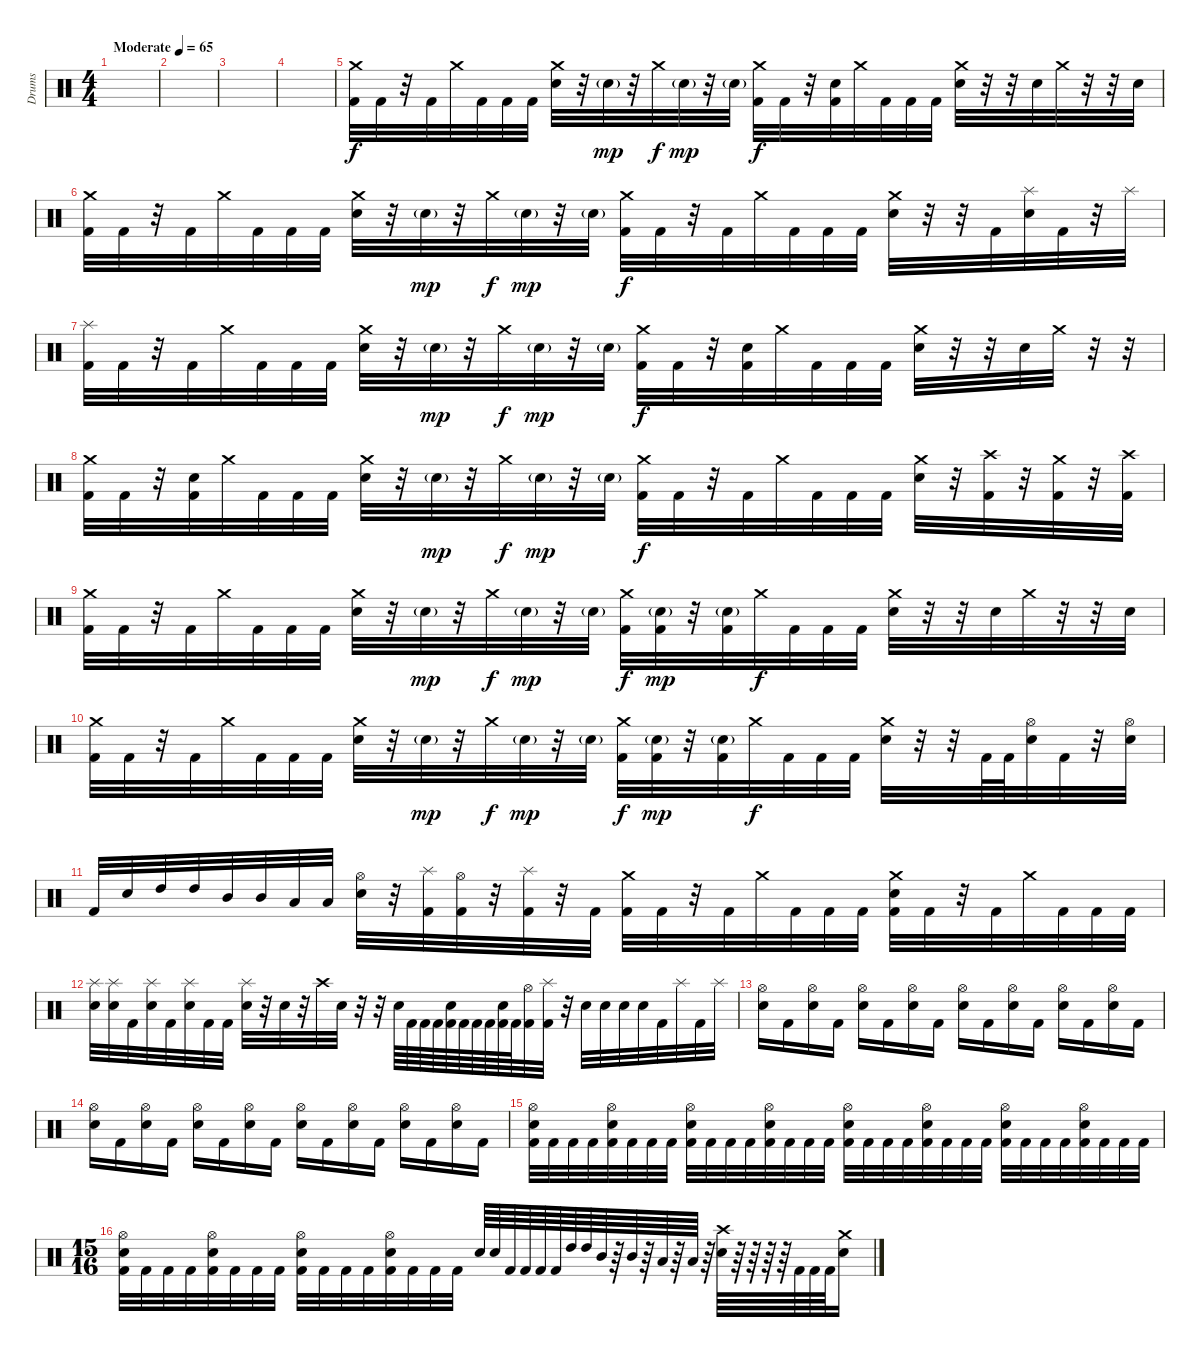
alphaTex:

\track ("Drums" "Drums") {instrument percussion}
\staff {score}
\articulation defaults
\ts (4 4)
\tempo (65 "Moderate")
\clef neutral
\ks c
|
|
|
|
("Crash medium (hit)" "Kick (hit) 2").32 "Kick (hit) 2".32 r.32 "Kick (hit) 2".32 "Crash medium (hit)".32 "Kick (hit) 2".32 "Kick (hit) 2".32 "Kick (hit) 2".32 ("Crash medium (hit)" "Electric Snare (hit)").32 r.32 "Electric Snare (hit)"{g}.32{dy mp} r.32 "Crash medium (hit)".32{dy f} "Electric Snare (hit)"{g}.32{dy mp} r.32 "Electric Snare (hit)"{g}.32 ("Crash medium (hit)" "Kick (hit) 2").32{dy f} "Kick (hit) 2".32 r.32 ("Electric Snare (hit)" "Kick (hit) 2").32 "Crash medium (hit)".32 "Kick (hit) 2".32 "Kick (hit) 2".32 "Kick (hit) 2".32 ("Crash medium (hit)" "Electric Snare (hit)").32 r.32 r.32 "Electric Snare (hit)".32 "Crash medium (hit)".32 r.32 r.32 "Electric Snare (hit)".32 |
("Crash medium (hit)" "Kick (hit) 2").32 "Kick (hit) 2".32 r.32 "Kick (hit) 2".32 "Crash medium (hit)".32 "Kick (hit) 2".32 "Kick (hit) 2".32 "Kick (hit) 2".32 ("Crash medium (hit)" "Electric Snare (hit)").32 r.32 "Electric Snare (hit)"{g}.32{dy mp} r.32 "Crash medium (hit)".32{dy f} "Electric Snare (hit)"{g}.32{dy mp} r.32 "Electric Snare (hit)"{g}.32 ("Crash medium (hit)" "Kick (hit) 2").32{dy f} "Kick (hit) 2".32 r.32 "Kick (hit) 2".32 "Crash medium (hit)".32 "Kick (hit) 2".32 "Kick (hit) 2".32 "Kick (hit) 2".32 ("Crash medium (hit)" "Electric Snare (hit)").32 r.32 r.32 "Kick (hit) 2".32 ("Splash (hit)" "Electric Snare (hit)").32 "Kick (hit) 2".32 r.32 "Splash (hit)".32 |
("Splash (hit)" "Kick (hit) 2").32 "Kick (hit) 2".32 r.32 "Kick (hit) 2".32 "Crash medium (hit)".32 "Kick (hit) 2".32 "Kick (hit) 2".32 "Kick (hit) 2".32 ("Crash medium (hit)" "Electric Snare (hit)").32 r.32 "Electric Snare (hit)"{g}.32{dy mp} r.32 "Crash medium (hit)".32{dy f} "Electric Snare (hit)"{g}.32{dy mp} r.32 "Electric Snare (hit)"{g}.32 ("Crash medium (hit)" "Kick (hit) 2").32{dy f} "Kick (hit) 2".32 r.32 ("Electric Snare (hit)" "Kick (hit) 2").32 "Crash medium (hit)".32 "Kick (hit) 2".32 "Kick (hit) 2".32 "Kick (hit) 2".32 ("Crash medium (hit)" "Electric Snare (hit)").32 r.32 r.32 "Electric Snare (hit)".32 "Crash medium (hit)".32 r.32 r.32 |
("Crash medium (hit)" "Kick (hit) 2").32 "Kick (hit) 2".32 r.32 ("Electric Snare (hit)" "Kick (hit) 2").32 "Crash medium (hit)".32 "Kick (hit) 2".32 "Kick (hit) 2".32 "Kick (hit) 2".32 ("Crash medium (hit)" "Electric Snare (hit)").32 r.32 "Electric Snare (hit)"{g}.32{dy mp} r.32 "Crash medium (hit)".32{dy f} "Electric Snare (hit)"{g}.32{dy mp} r.32 "Electric Snare (hit)"{g}.32 ("Crash medium (hit)" "Kick (hit) 2").32{dy f} "Kick (hit) 2".32 r.32 "Kick (hit) 2".32 "Crash medium (hit)".32 "Kick (hit) 2".32 "Kick (hit) 2".32 "Kick (hit) 2".32 ("Crash medium (hit)" "Electric Snare (hit)").32 r.32 ("Crash high (hit)" "Kick (hit) 2").32 r.32 ("Crash medium (hit)" "Kick (hit) 2").32 r.32 ("Crash high (hit)" "Kick (hit) 2").32 |
("Crash medium (hit)" "Kick (hit) 2").32 "Kick (hit) 2".32 r.32 "Kick (hit) 2".32 "Crash medium (hit)".32 "Kick (hit) 2".32 "Kick (hit) 2".32 "Kick (hit) 2".32 ("Crash medium (hit)" "Electric Snare (hit)").32 r.32 "Electric Snare (hit)"{g}.32{dy mp} r.32 "Crash medium (hit)".32{dy f} "Electric Snare (hit)"{g}.32{dy mp} r.32 "Electric Snare (hit)"{g}.32 ("Crash medium (hit)" "Kick (hit) 2").32{dy f} ("Electric Snare (hit)"{g} "Kick (hit) 2").32{dy mp} r.32 ("Electric Snare (hit)"{g} "Kick (hit) 2").32 "Crash medium (hit)".32{dy f} "Kick (hit) 2".32 "Kick (hit) 2".32 "Kick (hit) 2".32 ("Crash medium (hit)" "Electric Snare (hit)").32 r.32 r.32 "Electric Snare (hit)".32 "Crash medium (hit)".32 r.32 r.32 "Electric Snare (hit)".32 |
("Crash medium (hit)" "Kick (hit) 2").32 "Kick (hit) 2".32 r.32 "Kick (hit) 2".32 "Crash medium (hit)".32 "Kick (hit) 2".32 "Kick (hit) 2".32 "Kick (hit) 2".32 ("Crash medium (hit)" "Electric Snare (hit)").32 r.32 "Electric Snare (hit)"{g}.32{dy mp} r.32 "Crash medium (hit)".32{dy f} "Electric Snare (hit)"{g}.32{dy mp} r.32 "Electric Snare (hit)"{g}.32 ("Crash medium (hit)" "Kick (hit) 2").32{dy f} ("Electric Snare (hit)"{g} "Kick (hit) 2").32{dy mp} r.32 ("Electric Snare (hit)"{g} "Kick (hit) 2").32 "Crash medium (hit)".32{dy f} "Kick (hit) 2".32 "Kick (hit) 2".32 "Kick (hit) 2".32 ("Crash medium (hit)" "Electric Snare (hit)").32 r.32 r.32 "Kick (hit) 2".64 "Kick (hit) 2".64 ("Hi-Hat (open)" "Electric Snare (hit)").32 "Kick (hit) 2".32 r.32 ("Hi-Hat (open)" "Electric Snare (hit)").32 |
"Kick (hit) 2".32 "Electric Snare (hit)".32 "High Tom (hit)".32 "High Tom (hit)".32 "Mid Tom (hit)".32 "Mid Tom (hit)".32 "Low Tom (hit)".32 "Low Tom (hit)".32 ("Hi-Hat (open)" "Electric Snare (hit)").32 r.32 ("Splash (hit)" "Kick (hit) 2").32 ("Hi-Hat (open)" "Kick (hit) 2").32 r.32 ("Splash (hit)" "Kick (hit) 2").32 r.32 "Kick (hit) 2".32 ("Crash medium (hit)" "Kick (hit) 2").32 "Kick (hit) 2".32 r.32 "Kick (hit) 2".32 "Crash medium (hit)".32 "Kick (hit) 2".32 "Kick (hit) 2".32 "Kick (hit) 2".32 ("Crash medium (hit)" "Electric Snare (hit)" "Kick (hit) 2").32 "Kick (hit) 2".32 r.32 "Kick (hit) 2".32 "Crash medium (hit)".32 "Kick (hit) 2".32 "Kick (hit) 2".32 "Kick (hit) 2".32 |
("Splash (hit)" "Electric Snare (hit)").32 ("Splash (hit)" "Electric Snare (hit)").32 "Kick (hit) 2".32 ("Splash (hit)" "Electric Snare (hit)").32 "Kick (hit) 2".32 ("Splash (hit)" "Electric Snare (hit)").32 "Kick (hit) 2".32 "Kick (hit) 2".32 ("Splash (hit)" "Electric Snare (hit)").32 r.32 "Electric Snare (hit)".32 r.32 "Crash high (hit)".32 "Electric Snare (hit)".32 r.32 r.32 "Electric Snare (hit)".64 "Kick (hit) 2".64 "Kick (hit) 2".64 "Kick (hit) 2".64 ("Electric Snare (hit)" "Kick (hit) 2").64 "Kick (hit) 2".64 "Kick (hit) 2".64 "Kick (hit) 2".64 ("Electric Snare (hit)" "Kick (hit) 2").64 "Kick (hit) 2".64 ("Hi-Hat (open)" "Kick (hit) 2").32 ("Splash (hit)" "Kick (hit) 2").32 r.32 "Electric Snare (hit)".32 "Electric Snare (hit)".32 "Electric Snare (hit)".32 "Electric Snare (hit)".32 "Kick (hit) 2".32 "Splash (hit)".32 "Kick (hit) 2".32 "Splash (hit)".32 |
("Hi-Hat (open)" "Electric Snare (hit)").16 "Kick (hit) 2".16 ("Hi-Hat (open)" "Electric Snare (hit)").16 "Kick (hit) 2".16 ("Hi-Hat (open)" "Electric Snare (hit)").16 "Kick (hit) 2".16 ("Hi-Hat (open)" "Electric Snare (hit)").16 "Kick (hit) 2".16 ("Hi-Hat (open)" "Electric Snare (hit)").16 "Kick (hit) 2".16 ("Hi-Hat (open)" "Electric Snare (hit)").16 "Kick (hit) 2".16 ("Hi-Hat (open)" "Electric Snare (hit)").16 "Kick (hit) 2".16 ("Hi-Hat (open)" "Electric Snare (hit)").16 "Kick (hit) 2".16 |
("Hi-Hat (open)" "Electric Snare (hit)").16 "Kick (hit) 2".16 ("Hi-Hat (open)" "Electric Snare (hit)").16 "Kick (hit) 2".16 ("Hi-Hat (open)" "Electric Snare (hit)").16 "Kick (hit) 2".16 ("Hi-Hat (open)" "Electric Snare (hit)").16 "Kick (hit) 2".16 ("Hi-Hat (open)" "Electric Snare (hit)").16 "Kick (hit) 2".16 ("Hi-Hat (open)" "Electric Snare (hit)").16 "Kick (hit) 2".16 ("Hi-Hat (open)" "Electric Snare (hit)").16 "Kick (hit) 2".16 ("Hi-Hat (open)" "Electric Snare (hit)").16 "Kick (hit) 2".16 |
("Hi-Hat (open)" "Electric Snare (hit)" "Kick (hit) 2").32 "Kick (hit) 2".32 "Kick (hit) 2".32 "Kick (hit) 2".32 ("Hi-Hat (open)" "Electric Snare (hit)" "Kick (hit) 2").32 "Kick (hit) 2".32 "Kick (hit) 2".32 "Kick (hit) 2".32 ("Hi-Hat (open)" "Electric Snare (hit)" "Kick (hit) 2").32 "Kick (hit) 2".32 "Kick (hit) 2".32 "Kick (hit) 2".32 ("Hi-Hat (open)" "Electric Snare (hit)" "Kick (hit) 2").32 "Kick (hit) 2".32 "Kick (hit) 2".32 "Kick (hit) 2".32 ("Hi-Hat (open)" "Electric Snare (hit)" "Kick (hit) 2").32 "Kick (hit) 2".32 "Kick (hit) 2".32 "Kick (hit) 2".32 ("Hi-Hat (open)" "Electric Snare (hit)" "Kick (hit) 2").32 "Kick (hit) 2".32 "Kick (hit) 2".32 "Kick (hit) 2".32 ("Hi-Hat (open)" "Electric Snare (hit)" "Kick (hit) 2").32 "Kick (hit) 2".32 "Kick (hit) 2".32 "Kick (hit) 2".32 ("Hi-Hat (open)" "Electric Snare (hit)" "Kick (hit) 2").32 "Kick (hit) 2".32 "Kick (hit) 2".32 "Kick (hit) 2".32 |
\ts (15 16)
("Hi-Hat (open)" "Electric Snare (hit)" "Kick (hit) 2").32 "Kick (hit) 2".32 "Kick (hit) 2".32 "Kick (hit) 2".32 ("Hi-Hat (open)" "Electric Snare (hit)" "Kick (hit) 2").32 "Kick (hit) 2".32 "Kick (hit) 2".32 "Kick (hit) 2".32 ("Hi-Hat (open)" "Electric Snare (hit)" "Kick (hit) 2").32 "Kick (hit) 2".32 "Kick (hit) 2".32 "Kick (hit) 2".32 ("Hi-Hat (open)" "Electric Snare (hit)" "Kick (hit) 2").32 "Kick (hit) 2".32 "Kick (hit) 2".32 "Kick (hit) 2".32 "Electric Snare (hit)".64 "Electric Snare (hit)".64 "Kick (hit) 2".64 "Kick (hit) 2".64 "Kick (hit) 2".64 "Kick (hit) 2".64 "High Tom (hit)".64 "High Tom (hit)".64 "Mid Tom (hit)".64 r.64 "Mid Tom (hit)".64 r.64 "Low Tom (hit)".64 r.64 "Low Tom (hit)".64 r.64 ("Crash high (hit)" "Electric Snare (hit)").64 r.64 r.64 r.64 r.64 "Kick (hit) 2".64 "Kick (hit) 2".64 "Kick (hit) 2".64 ("Crash medium (hit)" "Electric Snare (hit)").16
